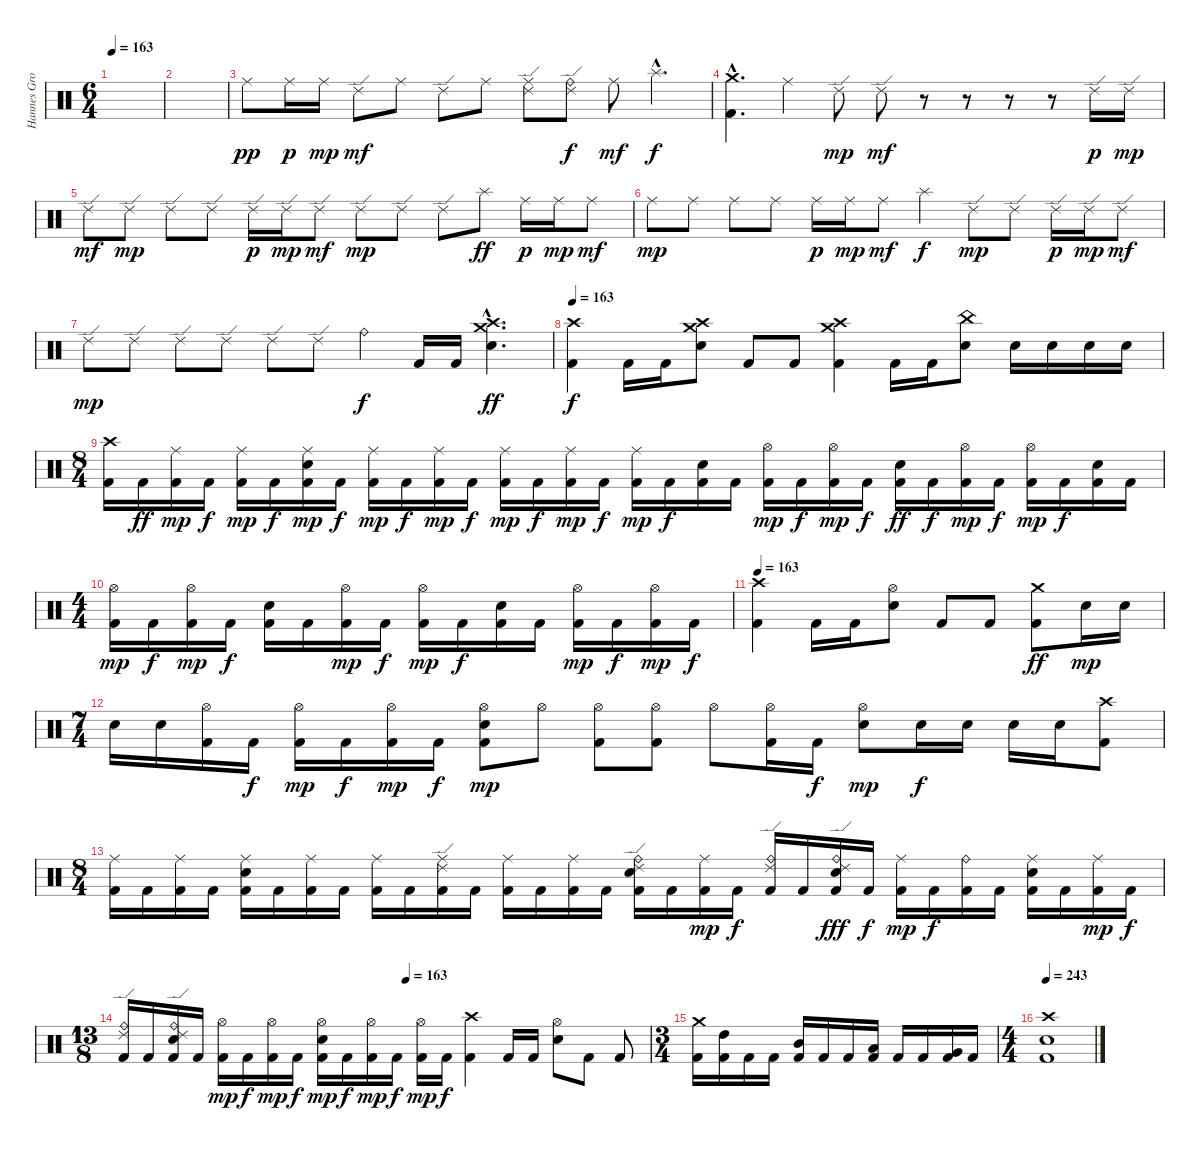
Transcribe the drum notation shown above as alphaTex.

\track ("Hannes Grossmann" "Hannes Gro") {instrument percussion}
\staff {score}
\articulation defaults
\ts (6 4)
\tempo 163
\clef neutral
\ks c
|
|
"Ride (middle)".8{dy pp} "Ride (middle)".16{dy p} "Ride (middle)".16{dy mp} "Ride (edge) 2".8{dy mf} "Ride (middle)".8 "Ride (edge) 2".8 "Ride (middle)".8 ("Ride (edge) 2" "Ride (middle)").8 ("Ride (bell)" "Ride (edge) 2").8{dy f} "Ride (middle)".8{dy mf} "Splash (hit)"{hac}.4{d dy f} |
("Crash medium (hit)"{hac} "Kick (hit) 2"{hac}).4{d} "Ride (middle)".4 "Ride (edge) 2".8{dy mp} "Ride (edge) 2".8{dy mf} r.8 r.8 r.8 r.8 "Ride (edge) 2".16{dy p} "Ride (edge) 2".16{dy mp} |
"Ride (edge) 2".8{dy mf} "Ride (edge) 2".8{dy mp} "Ride (edge) 2".8 "Ride (edge) 2".8 "Ride (edge) 2".16{dy p} "Ride (edge) 2".16{dy mp} "Ride (edge) 2".8{dy mf} "Ride (edge) 2".8{dy mp} "Ride (edge) 2".8 "Ride (edge) 2".8 "Splash (hit)".8{dy ff} "Ride (middle)".16{dy p} "Ride (middle)".16{dy mp} "Ride (middle)".8{dy mf} |
"Ride (middle)".8{dy mp} "Ride (middle)".8 "Ride (middle)".8 "Ride (middle)".8 "Ride (middle)".16{dy p} "Ride (middle)".16{dy mp} "Ride (middle)".8{dy mf} "Splash (hit)".4{dy f} "Ride (edge) 2".8{dy mp} "Ride (edge) 2".8 "Ride (edge) 2".16{dy p} "Ride (edge) 2".16{dy mp} "Ride (edge) 2".8{dy mf} |
"Ride (edge) 2".8{dy mp} "Ride (edge) 2".8 "Ride (edge) 2".8 "Ride (edge) 2".8 "Ride (edge) 2".8 "Ride (edge) 2".8 "Ride (bell)".4{dy f} "Kick (hit) 2".16 "Kick (hit) 2".16 ("Crash high (hit)"{hac} "Crash medium (hit)"{hac} "Snare (hit) 2"{hac}).4{d dy ff} |
\tempo 163
("Crash high (hit)" "Kick (hit) 2").4{dy f} "Kick (hit) 2".16 "Kick (hit) 2".16 ("Crash medium (hit)" "Crash high (hit)" "Snare (hit) 2").8 "Kick (hit) 2".8 "Kick (hit) 2".8 ("Crash medium (hit)" "Crash high (hit)" "Kick (hit) 2").4 "Kick (hit) 2".16 "Kick (hit) 2".16 ("China (hit)" "Snare (hit) 2").8 "Snare (hit) 2".16{volume 11} "Snare (hit) 2".16{volume 12} "Snare (hit) 2".16{volume 13} "Snare (hit) 2".16 |
\ts (8 4)
("Crash high (hit)" "Kick (hit) 2").16 "Kick (hit) 2".16{dy ff} ("Ride (middle)" "Kick (hit) 2").16{dy mp} "Kick (hit) 2".16{dy f} ("Ride (middle)" "Kick (hit) 2").16{dy mp} "Kick (hit) 2".16{dy f} ("Ride (middle)" "Snare (hit) 2" "Kick (hit) 2").16{dy mp} "Kick (hit) 2".16{dy f} ("Ride (middle)" "Kick (hit) 2").16{dy mp} "Kick (hit) 2".16{dy f} ("Ride (middle)" "Kick (hit) 2").16{dy mp} "Kick (hit) 2".16{dy f} ("Ride (middle)" "Kick (hit) 2").16{dy mp} "Kick (hit) 2".16{dy f} ("Ride (middle)" "Kick (hit) 2").16{dy mp} "Kick (hit) 2".16{dy f} ("Ride (middle)" "Kick (hit) 2").16{dy mp} "Kick (hit) 2".16{dy f} ("Snare (hit) 2" "Kick (hit) 2").16 "Kick (hit) 2".16 ("Hi-Hat (open)" "Kick (hit) 2").16{dy mp} "Kick (hit) 2".16{dy f} ("Hi-Hat (open)" "Kick (hit) 2").16{dy mp} "Kick (hit) 2".16{dy f} ("Snare (hit) 2" "Kick (hit) 2").16{dy ff} "Kick (hit) 2".16{dy f} ("Hi-Hat (open)" "Kick (hit) 2").16{dy mp} "Kick (hit) 2".16{dy f} ("Hi-Hat (open)" "Kick (hit) 2").16{dy mp} "Kick (hit) 2".16{dy f} ("Snare (hit) 2" "Kick (hit) 2").16 "Kick (hit) 2".16 |
\ts (4 4)
("Hi-Hat (open)" "Kick (hit) 2").16{dy mp} "Kick (hit) 2".16{dy f} ("Hi-Hat (open)" "Kick (hit) 2").16{dy mp} "Kick (hit) 2".16{dy f} ("Snare (hit) 2" "Kick (hit) 2").16 "Kick (hit) 2".16 ("Hi-Hat (open)" "Kick (hit) 2").16{dy mp} "Kick (hit) 2".16{dy f} ("Hi-Hat (open)" "Kick (hit) 2").16{dy mp} "Kick (hit) 2".16{dy f} ("Snare (hit) 2" "Kick (hit) 2").16 "Kick (hit) 2".16 ("Hi-Hat (open)" "Kick (hit) 2").16{dy mp} "Kick (hit) 2".16{dy f} ("Hi-Hat (open)" "Kick (hit) 2").16{dy mp} "Kick (hit) 2".16{dy f} |
\tempo 163
("Crash high (hit)" "Kick (hit) 2").4 "Kick (hit) 2".16 "Kick (hit) 2".16 ("Hi-Hat (open)" "Snare (hit) 2").8 "Kick (hit) 2".8 "Kick (hit) 2".8 ("Crash medium (hit)" "Kick (hit) 2").8{dy ff} "Snare (hit) 2".16{dy mp volume 10} "Snare (hit) 2".16{volume 11} |
\ts (7 4)
"Snare (hit) 2".16{volume 12} "Snare (hit) 2".16{volume 13} ("Hi-Hat (open)" "Kick (hit) 2").16 "Kick (hit) 2".16{dy f} ("Hi-Hat (open)" "Kick (hit) 2").16{dy mp} "Kick (hit) 2".16{dy f} ("Hi-Hat (open)" "Kick (hit) 2").16{dy mp} "Kick (hit) 2".16{dy f} ("Hi-Hat (open)" "Snare (hit) 2" "Kick (hit) 2").8{dy mp} "Hi-Hat (open)".8 ("Hi-Hat (open)" "Kick (hit) 2").8 ("Hi-Hat (open)" "Kick (hit) 2").8 "Hi-Hat (open)".8 ("Hi-Hat (open)" "Kick (hit) 2").16 "Kick (hit) 2".16{dy f} ("Hi-Hat (open)" "Snare (hit) 2").8{dy mp} "Snare (hit) 2".16{dy f} "Snare (hit) 2".16 "Snare (hit) 2".16 "Snare (hit) 2".16 ("Crash high (hit)" "Kick (hit) 2").8 |
\ts (8 4)
("Ride (middle)" "Kick (hit) 2").16 "Kick (hit) 2".16 ("Ride (middle)" "Kick (hit) 2").16 "Kick (hit) 2".16 ("Ride (middle)" "Snare (hit) 2" "Kick (hit) 2").16 "Kick (hit) 2".16 ("Ride (middle)" "Kick (hit) 2").16 "Kick (hit) 2".16 ("Ride (middle)" "Kick (hit) 2").16 "Kick (hit) 2".16 ("Ride (middle)" "Ride (edge) 2" "Kick (hit) 2").16 "Kick (hit) 2".16 ("Ride (middle)" "Kick (hit) 2").16 "Kick (hit) 2".16 ("Ride (middle)" "Kick (hit) 2").16 "Kick (hit) 2".16 ("Ride (bell)" "Ride (edge) 2" "Snare (hit) 2" "Kick (hit) 2").16 "Kick (hit) 2".16 ("Ride (middle)" "Kick (hit) 2").16{dy mp} "Kick (hit) 2".16{dy f} ("Ride (bell)" "Ride (edge) 2" "Kick (hit) 2").16 "Kick (hit) 2".16 ("Ride (bell)" "Ride (edge) 2" "Snare (hit) 2" "Kick (hit) 2").16{dy fff} "Kick (hit) 2".16{dy f} ("Ride (middle)" "Kick (hit) 2").16{dy mp} "Kick (hit) 2".16{dy f} ("Ride (bell)" "Kick (hit) 2").16 "Kick (hit) 2".16 ("Ride (middle)" "Snare (hit) 2" "Kick (hit) 2").16 "Kick (hit) 2".16 ("Ride (middle)" "Kick (hit) 2").16{dy mp} "Kick (hit) 2".16{dy f} |
\ts (13 8)
\tempo (163 0.5384615384615384)
("Ride (bell)" "Ride (edge) 2" "Kick (hit) 2").16 "Kick (hit) 2".16 ("Ride (bell)" "Ride (edge) 2" "Snare (hit) 2" "Kick (hit) 2").16 "Kick (hit) 2".16 ("Hi-Hat (open)" "Kick (hit) 2").16{dy mp} "Kick (hit) 2".16{dy f} ("Hi-Hat (open)" "Kick (hit) 2").16{dy mp} "Kick (hit) 2".16{dy f} ("Hi-Hat (open)" "Snare (hit) 2" "Kick (hit) 2").16{dy mp} "Kick (hit) 2".16{dy f} ("Hi-Hat (open)" "Kick (hit) 2").16{dy mp} "Kick (hit) 2".16{dy f} ("Hi-Hat (open)" "Kick (hit) 2").16{dy mp} "Kick (hit) 2".16{dy f} ("Crash high (hit)" "Kick (hit) 2").4 "Kick (hit) 2".16 "Kick (hit) 2".16 ("Hi-Hat (open)" "Snare (hit) 2").8 "Kick (hit) 2".8 "Kick (hit) 2".8 |
\ts (3 4)
("Crash medium (hit)" "Kick (hit) 2").16 ("High Tom (hit)" "Kick (hit) 2").16 "Kick (hit) 2".16 "Kick (hit) 2".16 ("Mid Tom (hit)" "Kick (hit) 2").16 "Kick (hit) 2".16 "Kick (hit) 2".16 ("Low Tom (hit)" "Kick (hit) 2").16 "Kick (hit) 2".16 "Kick (hit) 2".16 ("Very Low Tom (hit)" "Kick (hit) 2").16 "Kick (hit) 2".16 |
\ts (4 4)
\tempo 243
("Crash high (hit)" "Snare (hit) 2" "Kick (hit) 2").1
